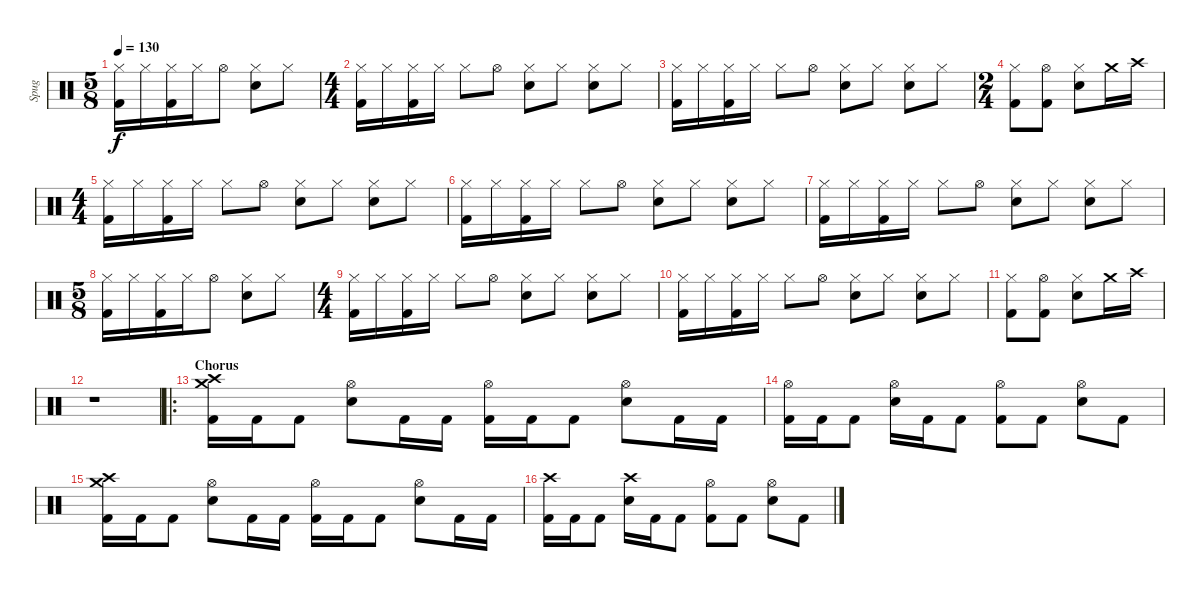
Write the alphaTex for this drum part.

\track ("Spug" "Spug") {instrument percussion}
\staff {score}
\articulation defaults
\ts (5 8)
\tempo 130
\clef neutral
\ks c
("Hi-Hat (closed)" "Kick (hit) 2").16{dy f} "Hi-Hat (closed)".16 ("Hi-Hat (closed)" "Kick (hit) 2").16 "Hi-Hat (closed)".16 "Hi-Hat (open)".8 ("Hi-Hat (closed)" "Electric Snare (hit)").8 "Hi-Hat (closed)".8 |
\ts (4 4)
("Hi-Hat (closed)" "Kick (hit) 2").16 "Hi-Hat (closed)".16 ("Hi-Hat (closed)" "Kick (hit) 2").16 "Hi-Hat (closed)".16 "Hi-Hat (closed)".8 "Hi-Hat (open)".8 ("Hi-Hat (closed)" "Electric Snare (hit)").8 "Hi-Hat (closed)".8 ("Hi-Hat (closed)" "Electric Snare (hit)").8 "Hi-Hat (closed)".8 |
("Hi-Hat (closed)" "Kick (hit) 2").16 "Hi-Hat (closed)".16 ("Hi-Hat (closed)" "Kick (hit) 2").16 "Hi-Hat (closed)".16 "Hi-Hat (closed)".8 "Hi-Hat (open)".8 ("Hi-Hat (closed)" "Electric Snare (hit)").8 "Hi-Hat (closed)".8 ("Hi-Hat (closed)" "Electric Snare (hit)").8 "Hi-Hat (closed)".8 |
\ts (2 4)
("Hi-Hat (closed)" "Kick (hit) 2").8 ("Hi-Hat (open)" "Kick (hit) 2").8 ("Hi-Hat (closed)" "Electric Snare (hit)").8 "Crash medium (hit)".16 "Crash high (hit)".16 |
\ts (4 4)
("Hi-Hat (closed)" "Kick (hit) 2").16 "Hi-Hat (closed)".16 ("Hi-Hat (closed)" "Kick (hit) 2").16 "Hi-Hat (closed)".16 "Hi-Hat (closed)".8 "Hi-Hat (open)".8 ("Hi-Hat (closed)" "Electric Snare (hit)").8 "Hi-Hat (closed)".8 ("Hi-Hat (closed)" "Electric Snare (hit)").8 "Hi-Hat (closed)".8 |
("Hi-Hat (closed)" "Kick (hit) 2").16 "Hi-Hat (closed)".16 ("Hi-Hat (closed)" "Kick (hit) 2").16 "Hi-Hat (closed)".16 "Hi-Hat (closed)".8 "Hi-Hat (open)".8 ("Hi-Hat (closed)" "Electric Snare (hit)").8 "Hi-Hat (closed)".8 ("Hi-Hat (closed)" "Electric Snare (hit)").8 "Hi-Hat (closed)".8 |
("Hi-Hat (closed)" "Kick (hit) 2").16 "Hi-Hat (closed)".16 ("Hi-Hat (closed)" "Kick (hit) 2").16 "Hi-Hat (closed)".16 "Hi-Hat (closed)".8 "Hi-Hat (open)".8 ("Hi-Hat (closed)" "Electric Snare (hit)").8 "Hi-Hat (closed)".8 ("Hi-Hat (closed)" "Electric Snare (hit)").8 "Hi-Hat (closed)".8 |
\ts (5 8)
("Hi-Hat (closed)" "Kick (hit) 2").16 "Hi-Hat (closed)".16 ("Hi-Hat (closed)" "Kick (hit) 2").16 "Hi-Hat (closed)".16 "Hi-Hat (open)".8 ("Hi-Hat (closed)" "Electric Snare (hit)").8 "Hi-Hat (closed)".8 |
\ts (4 4)
("Hi-Hat (closed)" "Kick (hit) 2").16 "Hi-Hat (closed)".16 ("Hi-Hat (closed)" "Kick (hit) 2").16 "Hi-Hat (closed)".16 "Hi-Hat (closed)".8 "Hi-Hat (open)".8 ("Hi-Hat (closed)" "Electric Snare (hit)").8 "Hi-Hat (closed)".8 ("Hi-Hat (closed)" "Electric Snare (hit)").8 "Hi-Hat (closed)".8 |
("Hi-Hat (closed)" "Kick (hit) 2").16 "Hi-Hat (closed)".16 ("Hi-Hat (closed)" "Kick (hit) 2").16 "Hi-Hat (closed)".16 "Hi-Hat (closed)".8 "Hi-Hat (open)".8 ("Hi-Hat (closed)" "Electric Snare (hit)").8 "Hi-Hat (closed)".8 ("Hi-Hat (closed)" "Electric Snare (hit)").8 "Hi-Hat (closed)".8 |
("Hi-Hat (closed)" "Kick (hit) 2").8 ("Hi-Hat (open)" "Kick (hit) 2").8 ("Hi-Hat (closed)" "Electric Snare (hit)").8 "Crash medium (hit)".16 "Crash high (hit)".16 |
r.1 |
\ro
\section ("" "Chorus")
("Crash high (hit)" "Crash medium (hit)" "Kick (hit) 2").16 "Kick (hit) 2".16 "Kick (hit) 2".8 ("Hi-Hat (open)" "Electric Snare (hit)").8 "Kick (hit) 2".16 "Kick (hit) 2".16 ("Hi-Hat (open)" "Kick (hit) 2").16 "Kick (hit) 2".16 "Kick (hit) 2".8 ("Hi-Hat (open)" "Electric Snare (hit)").8 "Kick (hit) 2".16 "Kick (hit) 2".16 |
("Hi-Hat (open)" "Kick (hit) 2").16 "Kick (hit) 2".16 "Kick (hit) 2".8 ("Hi-Hat (open)" "Electric Snare (hit)").16 "Kick (hit) 2".16 "Kick (hit) 2".8 ("Hi-Hat (open)" "Kick (hit) 2").8 "Kick (hit) 2".8 ("Hi-Hat (open)" "Electric Snare (hit)").8 "Kick (hit) 2".8 |
("Crash high (hit)" "Crash medium (hit)" "Kick (hit) 2").16 "Kick (hit) 2".16 "Kick (hit) 2".8 ("Hi-Hat (open)" "Electric Snare (hit)").8 "Kick (hit) 2".16 "Kick (hit) 2".16 ("Hi-Hat (open)" "Kick (hit) 2").16 "Kick (hit) 2".16 "Kick (hit) 2".8 ("Hi-Hat (open)" "Electric Snare (hit)").8 "Kick (hit) 2".16 "Kick (hit) 2".16 |
("Crash high (hit)" "Kick (hit) 2").16 "Kick (hit) 2".16 "Kick (hit) 2".8 ("Crash high (hit)" "Electric Snare (hit)").16 "Kick (hit) 2".16 "Kick (hit) 2".8 ("Hi-Hat (open)" "Kick (hit) 2").8 "Kick (hit) 2".8 ("Hi-Hat (open)" "Electric Snare (hit)").8 "Kick (hit) 2".8
